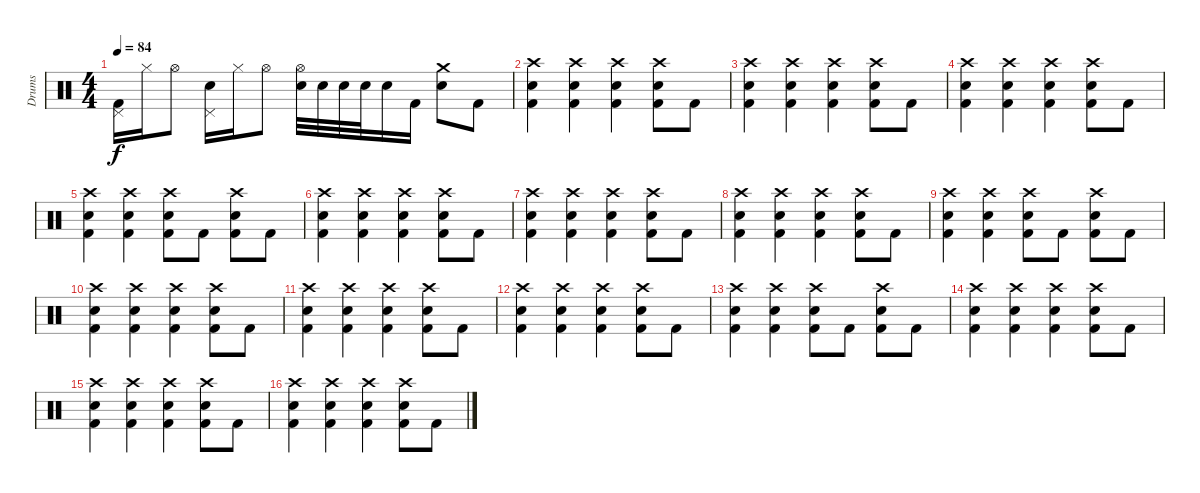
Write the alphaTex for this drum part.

\track ("Drums" "Drums") {instrument percussion}
\staff {score}
\articulation defaults
\ts (4 4)
\tempo 84
\clef neutral
\ks c
("Pedal Hi-Hat (hit)" "Kick (hit) 2").16{dy f} "Hi-Hat (closed)".16 "Hi-Hat (open)".8 ("Pedal Hi-Hat (hit)" "Electric Snare (hit)").16 "Hi-Hat (closed)".16 "Hi-Hat (open)".8 ("Hi-Hat (open)" "Electric Snare (hit)").32 "Electric Snare (hit)".32 "Electric Snare (hit)".32 "Electric Snare (hit)".32 "Electric Snare (hit)".16 "Kick (hit) 2".16 ("Crash medium (hit)" "Electric Snare (hit)").8 "Kick (hit) 2".8 |
("Crash high (hit)" "Electric Snare (hit)" "Kick (hit) 2").4 ("Crash high (hit)" "Electric Snare (hit)" "Kick (hit) 2").4 ("Crash high (hit)" "Electric Snare (hit)" "Kick (hit) 2").4 ("Crash high (hit)" "Electric Snare (hit)" "Kick (hit) 2").8 "Kick (hit) 2".8 |
("Crash high (hit)" "Electric Snare (hit)" "Kick (hit) 2").4 ("Crash high (hit)" "Electric Snare (hit)" "Kick (hit) 2").4 ("Crash high (hit)" "Electric Snare (hit)" "Kick (hit) 2").4 ("Crash high (hit)" "Electric Snare (hit)" "Kick (hit) 2").8 "Kick (hit) 2".8 |
("Crash high (hit)" "Electric Snare (hit)" "Kick (hit) 2").4 ("Crash high (hit)" "Electric Snare (hit)" "Kick (hit) 2").4 ("Crash high (hit)" "Electric Snare (hit)" "Kick (hit) 2").4 ("Crash high (hit)" "Electric Snare (hit)" "Kick (hit) 2").8 "Kick (hit) 2".8 |
("Crash high (hit)" "Electric Snare (hit)" "Kick (hit) 2").4{volume 10} ("Crash high (hit)" "Electric Snare (hit)" "Kick (hit) 2").4 ("Crash high (hit)" "Electric Snare (hit)" "Kick (hit) 2").8 "Kick (hit) 2".8 ("Crash high (hit)" "Electric Snare (hit)" "Kick (hit) 2").8 "Kick (hit) 2".8 |
("Crash high (hit)" "Electric Snare (hit)" "Kick (hit) 2").4 ("Crash high (hit)" "Electric Snare (hit)" "Kick (hit) 2").4 ("Crash high (hit)" "Electric Snare (hit)" "Kick (hit) 2").4 ("Crash high (hit)" "Electric Snare (hit)" "Kick (hit) 2").8 "Kick (hit) 2".8 |
("Crash high (hit)" "Electric Snare (hit)" "Kick (hit) 2").4 ("Crash high (hit)" "Electric Snare (hit)" "Kick (hit) 2").4 ("Crash high (hit)" "Electric Snare (hit)" "Kick (hit) 2").4 ("Crash high (hit)" "Electric Snare (hit)" "Kick (hit) 2").8 "Kick (hit) 2".8 |
("Crash high (hit)" "Electric Snare (hit)" "Kick (hit) 2").4 ("Crash high (hit)" "Electric Snare (hit)" "Kick (hit) 2").4 ("Crash high (hit)" "Electric Snare (hit)" "Kick (hit) 2").4 ("Crash high (hit)" "Electric Snare (hit)" "Kick (hit) 2").8 "Kick (hit) 2".8 |
("Crash high (hit)" "Electric Snare (hit)" "Kick (hit) 2").4{volume 7} ("Crash high (hit)" "Electric Snare (hit)" "Kick (hit) 2").4 ("Crash high (hit)" "Electric Snare (hit)" "Kick (hit) 2").8 "Kick (hit) 2".8 ("Crash high (hit)" "Electric Snare (hit)" "Kick (hit) 2").8 "Kick (hit) 2".8 |
("Crash high (hit)" "Electric Snare (hit)" "Kick (hit) 2").4 ("Crash high (hit)" "Electric Snare (hit)" "Kick (hit) 2").4 ("Crash high (hit)" "Electric Snare (hit)" "Kick (hit) 2").4 ("Crash high (hit)" "Electric Snare (hit)" "Kick (hit) 2").8 "Kick (hit) 2".8 |
("Crash high (hit)" "Electric Snare (hit)" "Kick (hit) 2").4 ("Crash high (hit)" "Electric Snare (hit)" "Kick (hit) 2").4 ("Crash high (hit)" "Electric Snare (hit)" "Kick (hit) 2").4 ("Crash high (hit)" "Electric Snare (hit)" "Kick (hit) 2").8 "Kick (hit) 2".8 |
("Crash high (hit)" "Electric Snare (hit)" "Kick (hit) 2").4 ("Crash high (hit)" "Electric Snare (hit)" "Kick (hit) 2").4 ("Crash high (hit)" "Electric Snare (hit)" "Kick (hit) 2").4 ("Crash high (hit)" "Electric Snare (hit)" "Kick (hit) 2").8 "Kick (hit) 2".8 |
("Crash high (hit)" "Electric Snare (hit)" "Kick (hit) 2").4{volume 4} ("Crash high (hit)" "Electric Snare (hit)" "Kick (hit) 2").4 ("Crash high (hit)" "Electric Snare (hit)" "Kick (hit) 2").8 "Kick (hit) 2".8 ("Crash high (hit)" "Electric Snare (hit)" "Kick (hit) 2").8 "Kick (hit) 2".8 |
("Crash high (hit)" "Electric Snare (hit)" "Kick (hit) 2").4 ("Crash high (hit)" "Electric Snare (hit)" "Kick (hit) 2").4 ("Crash high (hit)" "Electric Snare (hit)" "Kick (hit) 2").4 ("Crash high (hit)" "Electric Snare (hit)" "Kick (hit) 2").8 "Kick (hit) 2".8 |
("Crash high (hit)" "Electric Snare (hit)" "Kick (hit) 2").4 ("Crash high (hit)" "Electric Snare (hit)" "Kick (hit) 2").4 ("Crash high (hit)" "Electric Snare (hit)" "Kick (hit) 2").4 ("Crash high (hit)" "Electric Snare (hit)" "Kick (hit) 2").8 "Kick (hit) 2".8 |
("Crash high (hit)" "Electric Snare (hit)" "Kick (hit) 2").4 ("Crash high (hit)" "Electric Snare (hit)" "Kick (hit) 2").4{volume 2} ("Crash high (hit)" "Electric Snare (hit)" "Kick (hit) 2").4 ("Crash high (hit)" "Electric Snare (hit)" "Kick (hit) 2").8 "Kick (hit) 2".8
